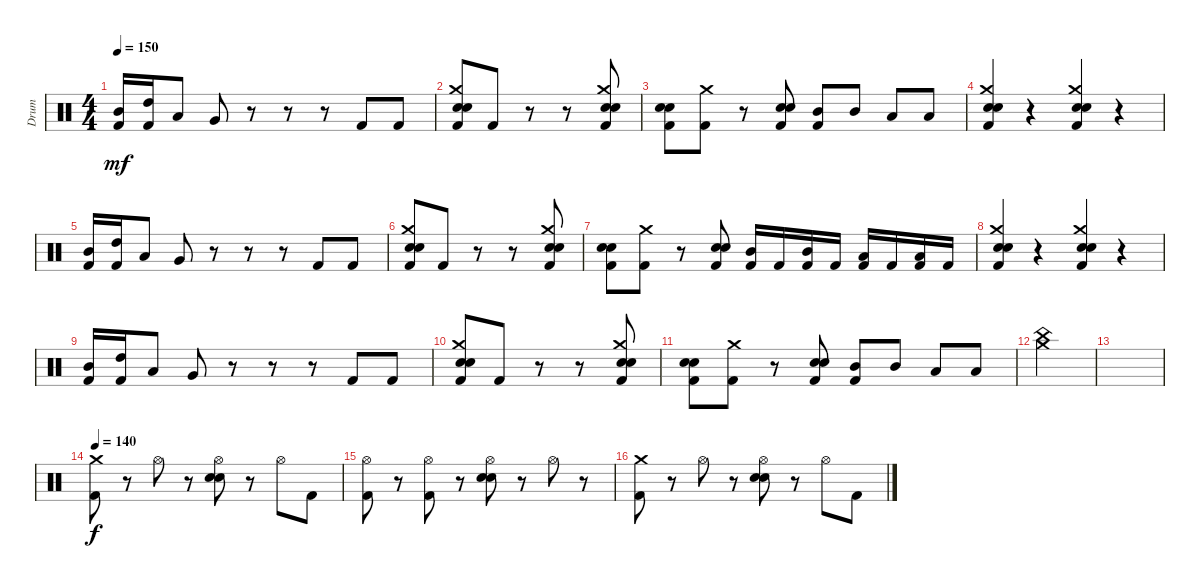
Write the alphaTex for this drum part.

\track ("Drum" "Drum") {instrument percussion}
\staff {score}
\articulation defaults
\ts (4 4)
\tempo 150
\clef neutral
\ks c
("Mid Tom (hit)" "Kick (hit) 2").16{dy mf} ("High Tom (hit)" "Kick (hit) 2").16 "Low Tom (hit)".8 "Very Low Tom (hit)".8 r.8 r.8 r.8 "Kick (hit) 2".8 "Kick (hit) 2".8 |
("Crash medium (hit)" "Snare (hit) 2" "Electric Snare (hit)" "Kick (hit) 2").8 "Kick (hit) 2".8 r.8 r.8 ("Crash medium (hit)" "Snare (hit) 2" "Electric Snare (hit)" "Kick (hit) 2").8 |
("Snare (hit) 2" "Electric Snare (hit)" "Kick (hit) 2").8 ("Crash medium (hit)" "Kick (hit) 2").8 r.8 ("Snare (hit) 2" "Electric Snare (hit)" "Kick (hit) 2").8 ("Mid Tom (hit)" "Kick (hit) 2").8 "Mid Tom (hit)".8 "Low Tom (hit)".8 "Low Tom (hit)".8 |
("Crash medium (hit)" "Snare (hit) 2" "Electric Snare (hit)" "Kick (hit) 2").4 r.4 ("Crash medium (hit)" "Snare (hit) 2" "Electric Snare (hit)" "Kick (hit) 2").4 r.4 |
("Mid Tom (hit)" "Kick (hit) 2").16 ("High Tom (hit)" "Kick (hit) 2").16 "Low Tom (hit)".8 "Very Low Tom (hit)".8 r.8 r.8 r.8 "Kick (hit) 2".8 "Kick (hit) 2".8 |
("Crash medium (hit)" "Snare (hit) 2" "Electric Snare (hit)" "Kick (hit) 2").8 "Kick (hit) 2".8 r.8 r.8 ("Crash medium (hit)" "Snare (hit) 2" "Electric Snare (hit)" "Kick (hit) 2").8 |
("Snare (hit) 2" "Electric Snare (hit)" "Kick (hit) 2").8 ("Crash medium (hit)" "Kick (hit) 2").8 r.8 ("Snare (hit) 2" "Electric Snare (hit)" "Kick (hit) 2").8 ("Mid Tom (hit)" "Kick (hit) 2").16 "Kick (hit) 2".16 ("Mid Tom (hit)" "Kick (hit) 2").16 "Kick (hit) 2".16 ("Low Tom (hit)" "Kick (hit) 2").16 "Kick (hit) 2".16 ("Low Tom (hit)" "Kick (hit) 2").16 "Kick (hit) 2".16 |
("Crash medium (hit)" "Snare (hit) 2" "Electric Snare (hit)" "Kick (hit) 2").4 r.4 ("Crash medium (hit)" "Snare (hit) 2" "Electric Snare (hit)" "Kick (hit) 2").4 r.4 |
("Mid Tom (hit)" "Kick (hit) 2").16 ("High Tom (hit)" "Kick (hit) 2").16 "Low Tom (hit)".8 "Very Low Tom (hit)".8 r.8 r.8 r.8 "Kick (hit) 2".8 "Kick (hit) 2".8 |
("Crash medium (hit)" "Snare (hit) 2" "Electric Snare (hit)" "Kick (hit) 2").8 "Kick (hit) 2".8 r.8 r.8 ("Crash medium (hit)" "Snare (hit) 2" "Electric Snare (hit)" "Kick (hit) 2").8 |
("Snare (hit) 2" "Electric Snare (hit)" "Kick (hit) 2").8 ("Crash medium (hit)" "Kick (hit) 2").8 r.8 ("Snare (hit) 2" "Electric Snare (hit)" "Kick (hit) 2").8 ("Mid Tom (hit)" "Kick (hit) 2").8 "Mid Tom (hit)".8 "Low Tom (hit)".8 "Low Tom (hit)".8 |
("Crash medium (hit)" "China (hit)").4 |
|
\tempo 135
\tempo 140
("Crash medium (hit)" "Kick (hit) 2").8{dy f} r.8 "Hi-Hat (open)".8 r.8 ("Hi-Hat (open)" "Snare (hit) 2" "Electric Snare (hit)").8 r.8 "Hi-Hat (open)".8 "Kick (hit) 2".8 |
("Hi-Hat (open)" "Kick (hit) 2").8 r.8 ("Hi-Hat (open)" "Kick (hit) 2").8 r.8 ("Hi-Hat (open)" "Snare (hit) 2" "Electric Snare (hit)").8 r.8 "Hi-Hat (open)".8 r.8 |
("Crash medium (hit)" "Kick (hit) 2").8 r.8 "Hi-Hat (open)".8 r.8 ("Hi-Hat (open)" "Snare (hit) 2" "Electric Snare (hit)").8 r.8 "Hi-Hat (open)".8 "Kick (hit) 2".8
